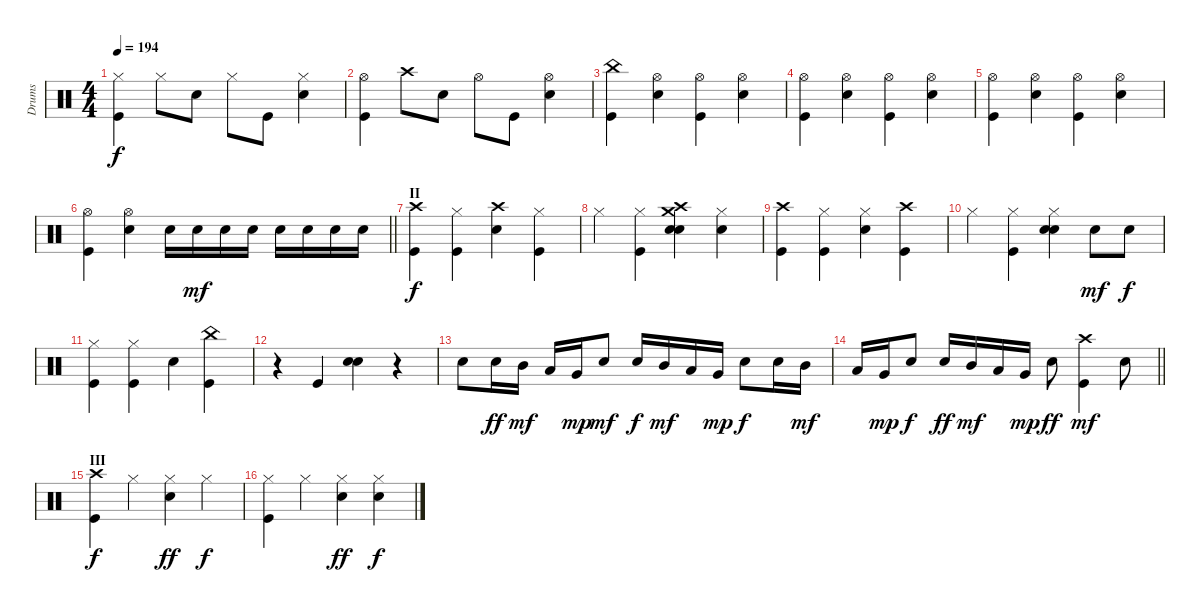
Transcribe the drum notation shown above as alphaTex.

\track ("Drums" "Drums") {instrument percussion}
\staff {score}
\articulation defaults
\ts (4 4)
\tempo 194
\clef neutral
\ks c
("Kick (hit)" "Hi-Hat (closed)").4{dy f} "Hi-Hat (closed)".8 "Snare (hit) 2".8 "Hi-Hat (closed)".8 "Kick (hit)".8 ("Snare (hit) 2" "Hi-Hat (closed)").4 |
("Kick (hit)" "Hi-Hat (open)").4 "Crash high (hit)".8 "Snare (hit) 2".8 "Hi-Hat (open)".8 "Kick (hit)".8 ("Snare (hit) 2" "Hi-Hat (open)").4 |
("Kick (hit)" "China (hit)").4 ("Snare (hit) 2" "Hi-Hat (open)").4 ("Kick (hit)" "Hi-Hat (open)").4 ("Snare (hit) 2" "Hi-Hat (open)").4 |
("Kick (hit)" "Hi-Hat (open)").4 ("Snare (hit) 2" "Hi-Hat (open)").4 ("Kick (hit)" "Hi-Hat (open)").4 ("Snare (hit) 2" "Hi-Hat (open)").4 |
("Kick (hit)" "Hi-Hat (open)").4 ("Snare (hit) 2" "Hi-Hat (open)").4 ("Kick (hit)" "Hi-Hat (open)").4 ("Snare (hit) 2" "Hi-Hat (open)").4 |
\barLineRight lightlight
("Kick (hit)" "Hi-Hat (open)").4 ("Snare (hit) 2" "Hi-Hat (open)").4 "Snare (hit) 2".16 "Snare (hit) 2".16{dy mf} "Snare (hit) 2".16 "Snare (hit) 2".16 "Snare (hit) 2".16 "Snare (hit) 2".16 "Snare (hit) 2".16 "Snare (hit) 2".16 |
\section ("" "II")
("Kick (hit)" "Crash high (hit)").4{dy f} ("Kick (hit)" "Hi-Hat (closed)").4 ("Snare (hit) 2" "Crash high (hit)").4 ("Kick (hit)" "Hi-Hat (closed)").4 |
"Hi-Hat (closed)".4 ("Kick (hit)" "Hi-Hat (closed)").4 ("Snare (hit) 2" "Snare (hit)" "Crash medium (hit)" "Crash high (hit)").4 ("Snare (hit) 2" "Hi-Hat (closed)").4 |
("Kick (hit)" "Crash high (hit)").4 ("Kick (hit)" "Hi-Hat (closed)").4 ("Snare (hit) 2" "Hi-Hat (closed)").4 ("Kick (hit)" "Crash high (hit)").4 |
"Hi-Hat (closed)".4 ("Kick (hit)" "Hi-Hat (closed)").4 ("Snare (hit) 2" "Snare (hit)" "Hi-Hat (closed)").4 "Snare (hit) 2".8{dy mf} "Snare (hit) 2".8{dy f} |
("Kick (hit)" "Hi-Hat (closed)").4 ("Kick (hit)" "Hi-Hat (closed)").4 "Snare (hit) 2".4 ("Kick (hit)" "China (hit)").4 |
r.4 "Kick (hit)".4 ("Snare (hit) 2" "Snare (hit)").4 r.4 |
"Snare (hit) 2".8 "Snare (hit) 2".16{dy ff} "Mid Tom (hit)".16{dy mf} "Low Tom (hit)".16 "Very Low Tom (hit)".16{dy mp} "Snare (hit) 2".8{dy mf} "Snare (hit) 2".16{dy f} "Mid Tom (hit)".16{dy mf} "Low Tom (hit)".16 "Very Low Tom (hit)".16{dy mp} "Snare (hit) 2".8{dy f} "Snare (hit) 2".16 "Mid Tom (hit)".16{dy mf} |
\barLineRight lightlight "Low Tom (hit)".16 "Very Low Tom (hit)".16{dy mp} "Snare (hit) 2".8{dy f} "Snare (hit) 2".16{dy ff} "Mid Tom (hit)".16{dy mf} "Low Tom (hit)".16 "Very Low Tom (hit)".16{dy mp} "Snare (hit) 2".8{dy ff}
("Kick (hit)" "Crash high (hit)").4{dy mf} "Snare (hit) 2".8 |
\section ("" "III")
("Kick (hit)" "Crash high (hit)").4{dy f} "Hi-Hat (closed)".4 ("Snare (hit) 2" "Hi-Hat (closed)").4{dy ff} "Hi-Hat (closed)".4{dy f} |
("Kick (hit)" "Hi-Hat (closed)").4 "Hi-Hat (closed)".4 ("Snare (hit) 2" "Hi-Hat (closed)").4{dy ff} ("Snare (hit) 2" "Hi-Hat (closed)").4{dy f}
